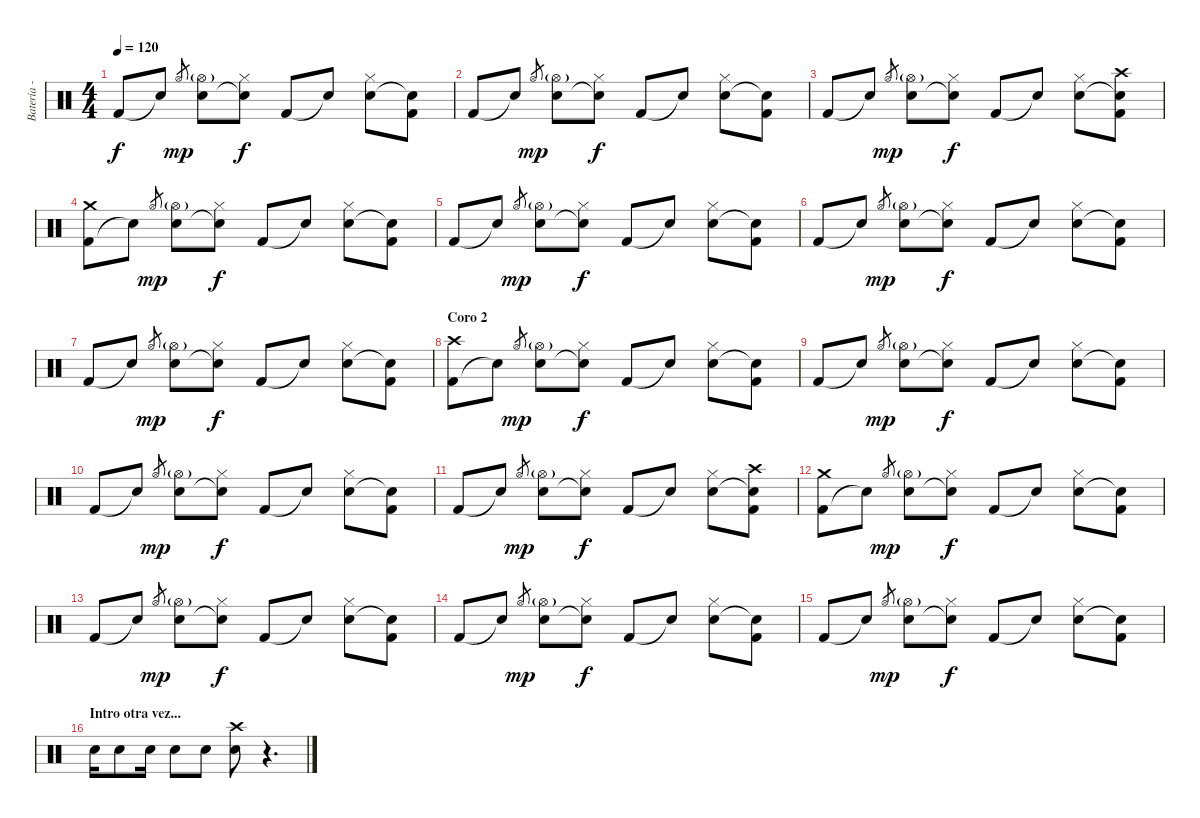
\track ("Batería - Txus" "Batería - ") {instrument percussion}
\staff {score}
\articulation defaults
\ts (4 4)
\tempo 120
\clef neutral
\ks c "Kick (hit) 2".8{dy f} "Snare (hit)"{t}.8 "Hi-Hat (open)".8{gr dy mp}
("Snare (hit) 2" "Hi-Hat (open)"{g}).8 ("Snare (hit)"{t} "Hi-Hat (closed)").8{dy f} "Kick (hit) 2".8 "Snare (hit)"{t}.8 ("Snare (hit) 2" "Hi-Hat (closed)").8 ("Snare (hit)"{t} "Kick (hit) 2").8 |
"Kick (hit) 2".8 "Snare (hit)"{t}.8 "Hi-Hat (open)".8{gr dy mp} ("Snare (hit) 2" "Hi-Hat (open)"{g}).8 ("Snare (hit)"{t} "Hi-Hat (closed)").8{dy f} "Kick (hit) 2".8 "Snare (hit)"{t}.8 ("Snare (hit) 2" "Hi-Hat (closed)").8 ("Snare (hit)"{t} "Kick (hit) 2").8 |
"Kick (hit) 2".8 "Snare (hit)"{t}.8 "Hi-Hat (open)".8{gr dy mp} ("Snare (hit) 2" "Hi-Hat (open)"{g}).8 ("Snare (hit)"{t} "Hi-Hat (closed)").8{dy f} "Kick (hit) 2".8 "Snare (hit)"{t}.8 ("Snare (hit) 2" "Hi-Hat (closed)").8 ("Snare (hit)"{t} "Kick (hit) 2" "Crash high (hit)").8 |
("Kick (hit) 2" "Crash medium (hit)").8 "Snare (hit)"{t}.8 "Hi-Hat (open)".8{gr dy mp} ("Snare (hit) 2" "Hi-Hat (open)"{g}).8 ("Snare (hit)"{t} "Hi-Hat (closed)").8{dy f} "Kick (hit) 2".8 "Snare (hit)"{t}.8 ("Snare (hit) 2" "Hi-Hat (closed)").8 ("Snare (hit)"{t} "Kick (hit) 2").8 |
"Kick (hit) 2".8 "Snare (hit)"{t}.8 "Hi-Hat (open)".8{gr dy mp} ("Snare (hit) 2" "Hi-Hat (open)"{g}).8 ("Snare (hit)"{t} "Hi-Hat (closed)").8{dy f} "Kick (hit) 2".8 "Snare (hit)"{t}.8 ("Snare (hit) 2" "Hi-Hat (closed)").8 ("Snare (hit)"{t} "Kick (hit) 2").8 |
"Kick (hit) 2".8 "Snare (hit)"{t}.8 "Hi-Hat (open)".8{gr dy mp} ("Snare (hit) 2" "Hi-Hat (open)"{g}).8 ("Snare (hit)"{t} "Hi-Hat (closed)").8{dy f} "Kick (hit) 2".8 "Snare (hit)"{t}.8 ("Snare (hit) 2" "Hi-Hat (closed)").8 ("Snare (hit)"{t} "Kick (hit) 2").8 |
"Kick (hit) 2".8 "Snare (hit)"{t}.8 "Hi-Hat (open)".8{gr dy mp} ("Snare (hit) 2" "Hi-Hat (open)"{g}).8 ("Snare (hit)"{t} "Hi-Hat (closed)").8{dy f} "Kick (hit) 2".8 "Snare (hit)"{t}.8 ("Snare (hit) 2" "Hi-Hat (closed)").8 ("Snare (hit)"{t} "Kick (hit) 2").8 |
\section ("" "Coro 2")
("Kick (hit) 2" "Crash high (hit)").8 "Snare (hit)"{t}.8 "Hi-Hat (open)".8{gr dy mp} ("Snare (hit) 2" "Hi-Hat (open)"{g}).8 ("Snare (hit)"{t} "Hi-Hat (closed)").8{dy f} "Kick (hit) 2".8 "Snare (hit)"{t}.8 ("Snare (hit) 2" "Hi-Hat (closed)").8 ("Snare (hit)"{t} "Kick (hit) 2").8 |
"Kick (hit) 2".8 "Snare (hit)"{t}.8 "Hi-Hat (open)".8{gr dy mp} ("Snare (hit) 2" "Hi-Hat (open)"{g}).8 ("Snare (hit)"{t} "Hi-Hat (closed)").8{dy f} "Kick (hit) 2".8 "Snare (hit)"{t}.8 ("Snare (hit) 2" "Hi-Hat (closed)").8 ("Snare (hit)"{t} "Kick (hit) 2").8 |
"Kick (hit) 2".8 "Snare (hit)"{t}.8 "Hi-Hat (open)".8{gr dy mp} ("Snare (hit) 2" "Hi-Hat (open)"{g}).8 ("Snare (hit)"{t} "Hi-Hat (closed)").8{dy f} "Kick (hit) 2".8 "Snare (hit)"{t}.8 ("Snare (hit) 2" "Hi-Hat (closed)").8 ("Snare (hit)"{t} "Kick (hit) 2").8 |
"Kick (hit) 2".8 "Snare (hit)"{t}.8 "Hi-Hat (open)".8{gr dy mp} ("Snare (hit) 2" "Hi-Hat (open)"{g}).8 ("Snare (hit)"{t} "Hi-Hat (closed)").8{dy f} "Kick (hit) 2".8 "Snare (hit)"{t}.8 ("Snare (hit) 2" "Hi-Hat (closed)").8 ("Snare (hit)"{t} "Kick (hit) 2" "Crash high (hit)").8 |
("Kick (hit) 2" "Crash medium (hit)").8 "Snare (hit)"{t}.8 "Hi-Hat (open)".8{gr dy mp} ("Snare (hit) 2" "Hi-Hat (open)"{g}).8 ("Snare (hit)"{t} "Hi-Hat (closed)").8{dy f} "Kick (hit) 2".8 "Snare (hit)"{t}.8 ("Snare (hit) 2" "Hi-Hat (closed)").8 ("Snare (hit)"{t} "Kick (hit) 2").8 |
"Kick (hit) 2".8 "Snare (hit)"{t}.8 "Hi-Hat (open)".8{gr dy mp} ("Snare (hit) 2" "Hi-Hat (open)"{g}).8 ("Snare (hit)"{t} "Hi-Hat (closed)").8{dy f} "Kick (hit) 2".8 "Snare (hit)"{t}.8 ("Snare (hit) 2" "Hi-Hat (closed)").8 ("Snare (hit)"{t} "Kick (hit) 2").8 |
"Kick (hit) 2".8 "Snare (hit)"{t}.8 "Hi-Hat (open)".8{gr dy mp} ("Snare (hit) 2" "Hi-Hat (open)"{g}).8 ("Snare (hit)"{t} "Hi-Hat (closed)").8{dy f} "Kick (hit) 2".8 "Snare (hit)"{t}.8 ("Snare (hit) 2" "Hi-Hat (closed)").8 ("Snare (hit)"{t} "Kick (hit) 2").8 |
"Kick (hit) 2".8 "Snare (hit)"{t}.8 "Hi-Hat (open)".8{gr dy mp} ("Snare (hit) 2" "Hi-Hat (open)"{g}).8 ("Snare (hit)"{t} "Hi-Hat (closed)").8{dy f} "Kick (hit) 2".8 "Snare (hit)"{t}.8 ("Snare (hit) 2" "Hi-Hat (closed)").8 ("Snare (hit)"{t} "Kick (hit) 2").8 |
\section ("" "Intro otra vez...")
"Snare (hit) 2".16 "Snare (hit) 2".8 "Snare (hit) 2".16 "Snare (hit) 2".8 "Snare (hit) 2".8 ("Crash high (hit)" "Snare (hit) 2").8 r.4{d}
